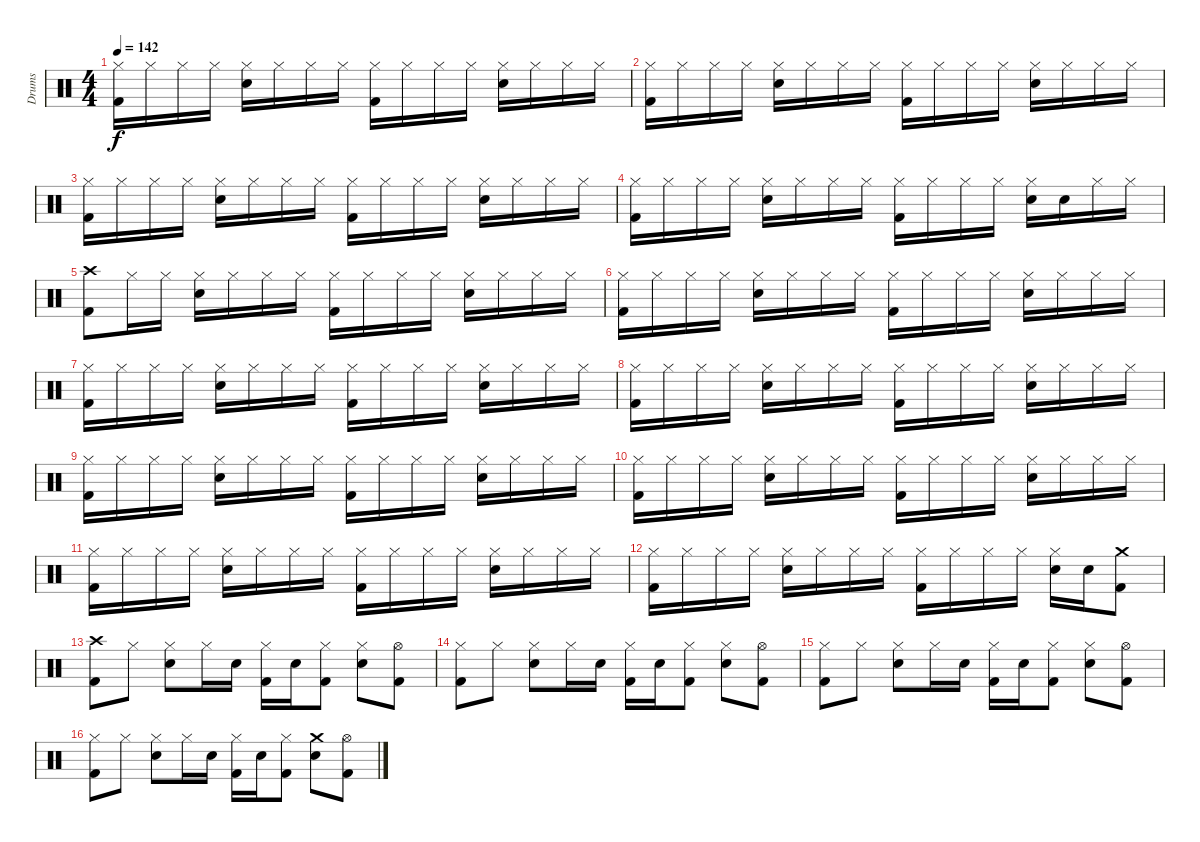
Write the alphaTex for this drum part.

\track ("Drums" "Drums") {instrument percussion}
\staff {score}
\articulation defaults
\ts (4 4)
\tempo 142
\clef neutral
\ks c
("Hi-Hat (closed)" "Kick (hit) 2").16{dy f} "Hi-Hat (closed)".16 "Hi-Hat (closed)".16 "Hi-Hat (closed)".16 ("Hi-Hat (closed)" "Electric Snare (hit)").16 "Hi-Hat (closed)".16 "Hi-Hat (closed)".16 "Hi-Hat (closed)".16 ("Hi-Hat (closed)" "Kick (hit) 2").16 "Hi-Hat (closed)".16 "Hi-Hat (closed)".16 "Hi-Hat (closed)".16 ("Hi-Hat (closed)" "Electric Snare (hit)").16 "Hi-Hat (closed)".16 "Hi-Hat (closed)".16 "Hi-Hat (closed)".16 |
("Hi-Hat (closed)" "Kick (hit) 2").16 "Hi-Hat (closed)".16 "Hi-Hat (closed)".16 "Hi-Hat (closed)".16 ("Hi-Hat (closed)" "Electric Snare (hit)").16 "Hi-Hat (closed)".16 "Hi-Hat (closed)".16 "Hi-Hat (closed)".16 ("Hi-Hat (closed)" "Kick (hit) 2").16 "Hi-Hat (closed)".16 "Hi-Hat (closed)".16 "Hi-Hat (closed)".16 ("Hi-Hat (closed)" "Electric Snare (hit)").16 "Hi-Hat (closed)".16 "Hi-Hat (closed)".16 "Hi-Hat (closed)".16 |
("Hi-Hat (closed)" "Kick (hit) 2").16 "Hi-Hat (closed)".16 "Hi-Hat (closed)".16 "Hi-Hat (closed)".16 ("Hi-Hat (closed)" "Electric Snare (hit)").16 "Hi-Hat (closed)".16 "Hi-Hat (closed)".16 "Hi-Hat (closed)".16 ("Hi-Hat (closed)" "Kick (hit) 2").16 "Hi-Hat (closed)".16 "Hi-Hat (closed)".16 "Hi-Hat (closed)".16 ("Hi-Hat (closed)" "Electric Snare (hit)").16 "Hi-Hat (closed)".16 "Hi-Hat (closed)".16 "Hi-Hat (closed)".16 |
("Hi-Hat (closed)" "Kick (hit) 2").16 "Hi-Hat (closed)".16 "Hi-Hat (closed)".16 "Hi-Hat (closed)".16 ("Hi-Hat (closed)" "Electric Snare (hit)").16 "Hi-Hat (closed)".16 "Hi-Hat (closed)".16 "Hi-Hat (closed)".16 ("Hi-Hat (closed)" "Kick (hit) 2").16 "Hi-Hat (closed)".16 "Hi-Hat (closed)".16 "Hi-Hat (closed)".16 ("Hi-Hat (closed)" "Electric Snare (hit)").16 "Electric Snare (hit)".16 "Hi-Hat (closed)".16 "Hi-Hat (closed)".16 |
("Crash high (hit)" "Kick (hit) 2").8 "Hi-Hat (closed)".16 "Hi-Hat (closed)".16 ("Hi-Hat (closed)" "Electric Snare (hit)").16 "Hi-Hat (closed)".16 "Hi-Hat (closed)".16 "Hi-Hat (closed)".16 ("Hi-Hat (closed)" "Kick (hit) 2").16 "Hi-Hat (closed)".16 "Hi-Hat (closed)".16 "Hi-Hat (closed)".16 ("Hi-Hat (closed)" "Electric Snare (hit)").16 "Hi-Hat (closed)".16 "Hi-Hat (closed)".16 "Hi-Hat (closed)".16 |
("Hi-Hat (closed)" "Kick (hit) 2").16 "Hi-Hat (closed)".16 "Hi-Hat (closed)".16 "Hi-Hat (closed)".16 ("Hi-Hat (closed)" "Electric Snare (hit)").16 "Hi-Hat (closed)".16 "Hi-Hat (closed)".16 "Hi-Hat (closed)".16 ("Hi-Hat (closed)" "Kick (hit) 2").16 "Hi-Hat (closed)".16 "Hi-Hat (closed)".16 "Hi-Hat (closed)".16 ("Hi-Hat (closed)" "Electric Snare (hit)").16 "Hi-Hat (closed)".16 "Hi-Hat (closed)".16 "Hi-Hat (closed)".16 |
("Hi-Hat (closed)" "Kick (hit) 2").16 "Hi-Hat (closed)".16 "Hi-Hat (closed)".16 "Hi-Hat (closed)".16 ("Hi-Hat (closed)" "Electric Snare (hit)").16 "Hi-Hat (closed)".16 "Hi-Hat (closed)".16 "Hi-Hat (closed)".16 ("Hi-Hat (closed)" "Kick (hit) 2").16 "Hi-Hat (closed)".16 "Hi-Hat (closed)".16 "Hi-Hat (closed)".16 ("Hi-Hat (closed)" "Electric Snare (hit)").16 "Hi-Hat (closed)".16 "Hi-Hat (closed)".16 "Hi-Hat (closed)".16 |
("Hi-Hat (closed)" "Kick (hit) 2").16 "Hi-Hat (closed)".16 "Hi-Hat (closed)".16 "Hi-Hat (closed)".16 ("Hi-Hat (closed)" "Electric Snare (hit)").16 "Hi-Hat (closed)".16 "Hi-Hat (closed)".16 "Hi-Hat (closed)".16 ("Hi-Hat (closed)" "Kick (hit) 2").16 "Hi-Hat (closed)".16 "Hi-Hat (closed)".16 "Hi-Hat (closed)".16 ("Hi-Hat (closed)" "Electric Snare (hit)").16 "Hi-Hat (closed)".16 "Hi-Hat (closed)".16 "Hi-Hat (closed)".16 |
("Hi-Hat (closed)" "Kick (hit) 2").16 "Hi-Hat (closed)".16 "Hi-Hat (closed)".16 "Hi-Hat (closed)".16 ("Hi-Hat (closed)" "Electric Snare (hit)").16 "Hi-Hat (closed)".16 "Hi-Hat (closed)".16 "Hi-Hat (closed)".16 ("Hi-Hat (closed)" "Kick (hit) 2").16 "Hi-Hat (closed)".16 "Hi-Hat (closed)".16 "Hi-Hat (closed)".16 ("Hi-Hat (closed)" "Electric Snare (hit)").16 "Hi-Hat (closed)".16 "Hi-Hat (closed)".16 "Hi-Hat (closed)".16 |
("Hi-Hat (closed)" "Kick (hit) 2").16 "Hi-Hat (closed)".16 "Hi-Hat (closed)".16 "Hi-Hat (closed)".16 ("Hi-Hat (closed)" "Electric Snare (hit)").16 "Hi-Hat (closed)".16 "Hi-Hat (closed)".16 "Hi-Hat (closed)".16 ("Hi-Hat (closed)" "Kick (hit) 2").16 "Hi-Hat (closed)".16 "Hi-Hat (closed)".16 "Hi-Hat (closed)".16 ("Hi-Hat (closed)" "Electric Snare (hit)").16 "Hi-Hat (closed)".16 "Hi-Hat (closed)".16 "Hi-Hat (closed)".16 |
("Hi-Hat (closed)" "Kick (hit) 2").16 "Hi-Hat (closed)".16 "Hi-Hat (closed)".16 "Hi-Hat (closed)".16 ("Hi-Hat (closed)" "Electric Snare (hit)").16 "Hi-Hat (closed)".16 "Hi-Hat (closed)".16 "Hi-Hat (closed)".16 ("Hi-Hat (closed)" "Kick (hit) 2").16 "Hi-Hat (closed)".16 "Hi-Hat (closed)".16 "Hi-Hat (closed)".16 ("Hi-Hat (closed)" "Electric Snare (hit)").16 "Hi-Hat (closed)".16 "Hi-Hat (closed)".16 "Hi-Hat (closed)".16 |
("Hi-Hat (closed)" "Kick (hit) 2").16 "Hi-Hat (closed)".16 "Hi-Hat (closed)".16 "Hi-Hat (closed)".16 ("Hi-Hat (closed)" "Electric Snare (hit)").16 "Hi-Hat (closed)".16 "Hi-Hat (closed)".16 "Hi-Hat (closed)".16 ("Hi-Hat (closed)" "Kick (hit) 2").16 "Hi-Hat (closed)".16 "Hi-Hat (closed)".16 "Hi-Hat (closed)".16 ("Hi-Hat (closed)" "Electric Snare (hit)").16 "Electric Snare (hit)".16 ("Crash medium (hit)" "Kick (hit) 2").8 |
("Crash high (hit)" "Kick (hit) 2").8 "Hi-Hat (closed)".8 ("Hi-Hat (closed)" "Electric Snare (hit)").8 "Hi-Hat (closed)".16 "Electric Snare (hit)".16 ("Hi-Hat (closed)" "Kick (hit) 2").16 "Electric Snare (hit)".16 ("Hi-Hat (closed)" "Kick (hit) 2").8 ("Hi-Hat (closed)" "Electric Snare (hit)").8 ("Hi-Hat (open)" "Kick (hit) 2").8 |
("Hi-Hat (closed)" "Kick (hit) 2").8 "Hi-Hat (closed)".8 ("Hi-Hat (closed)" "Electric Snare (hit)").8 "Hi-Hat (closed)".16 "Electric Snare (hit)".16 ("Hi-Hat (closed)" "Kick (hit) 2").16 "Electric Snare (hit)".16 ("Hi-Hat (closed)" "Kick (hit) 2").8 ("Hi-Hat (closed)" "Electric Snare (hit)").8 ("Hi-Hat (open)" "Kick (hit) 2").8 |
("Hi-Hat (closed)" "Kick (hit) 2").8 "Hi-Hat (closed)".8 ("Hi-Hat (closed)" "Electric Snare (hit)").8 "Hi-Hat (closed)".16 "Electric Snare (hit)".16 ("Hi-Hat (closed)" "Kick (hit) 2").16 "Electric Snare (hit)".16 ("Hi-Hat (closed)" "Kick (hit) 2").8 ("Hi-Hat (closed)" "Electric Snare (hit)").8 ("Hi-Hat (open)" "Kick (hit) 2").8 |
("Hi-Hat (closed)" "Kick (hit) 2").8 "Hi-Hat (closed)".8 ("Hi-Hat (closed)" "Electric Snare (hit)").8 "Hi-Hat (closed)".16 "Electric Snare (hit)".16 ("Hi-Hat (closed)" "Kick (hit) 2").16 "Electric Snare (hit)".16 ("Hi-Hat (closed)" "Kick (hit) 2").8 ("Crash medium (hit)" "Electric Snare (hit)").8 ("Hi-Hat (open)" "Kick (hit) 2").8
